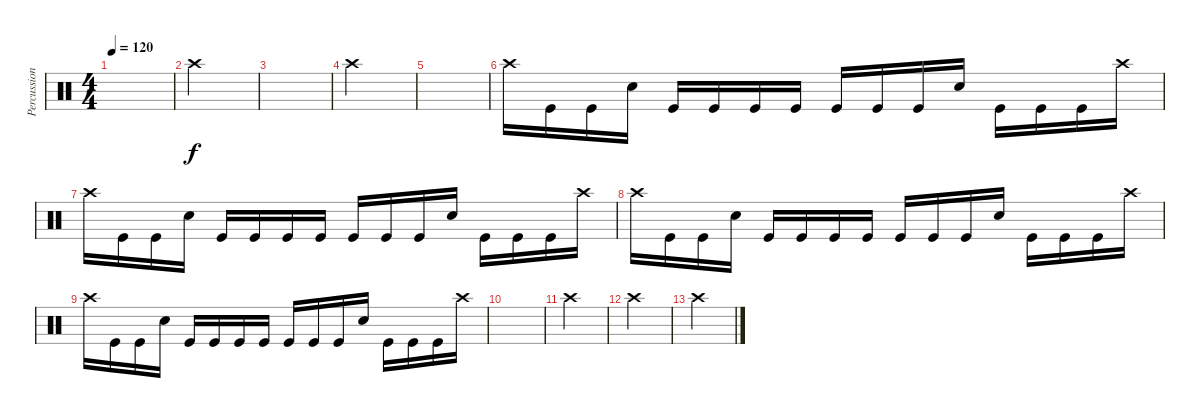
\track ("Percussion" "Percussion") {instrument percussion}
\staff {score}
\articulation defaults
\ts (4 4)
\tempo 120
\clef neutral
\ks c
|
"Crash high (hit)".4 |
|
"Crash high (hit)".4 |
|
"Crash high (hit)".16 "Kick (hit)".16 "Kick (hit)".16 "Snare (hit) 2".16 "Kick (hit)".16 "Kick (hit)".16 "Kick (hit)".16 "Kick (hit)".16 "Kick (hit)".16 "Kick (hit)".16 "Kick (hit)".16 "Snare (hit) 2".16 "Kick (hit)".16 "Kick (hit)".16 "Kick (hit)".16 "Crash high (hit)".16 |
"Crash high (hit)".16 "Kick (hit)".16 "Kick (hit)".16 "Snare (hit) 2".16 "Kick (hit)".16 "Kick (hit)".16 "Kick (hit)".16 "Kick (hit)".16 "Kick (hit)".16 "Kick (hit)".16 "Kick (hit)".16 "Snare (hit) 2".16 "Kick (hit)".16 "Kick (hit)".16 "Kick (hit)".16 "Crash high (hit)".16 |
"Crash high (hit)".16 "Kick (hit)".16 "Kick (hit)".16 "Snare (hit) 2".16 "Kick (hit)".16 "Kick (hit)".16 "Kick (hit)".16 "Kick (hit)".16 "Kick (hit)".16 "Kick (hit)".16 "Kick (hit)".16 "Snare (hit) 2".16 "Kick (hit)".16 "Kick (hit)".16 "Kick (hit)".16 "Crash high (hit)".16 |
"Crash high (hit)".16 "Kick (hit)".16 "Kick (hit)".16 "Snare (hit) 2".16 "Kick (hit)".16 "Kick (hit)".16 "Kick (hit)".16 "Kick (hit)".16 "Kick (hit)".16 "Kick (hit)".16 "Kick (hit)".16 "Snare (hit) 2".16 "Kick (hit)".16 "Kick (hit)".16 "Kick (hit)".16 "Crash high (hit)".16 |
|
"Crash high (hit)".4 |
"Crash high (hit)".4 |
"Crash high (hit)".4
